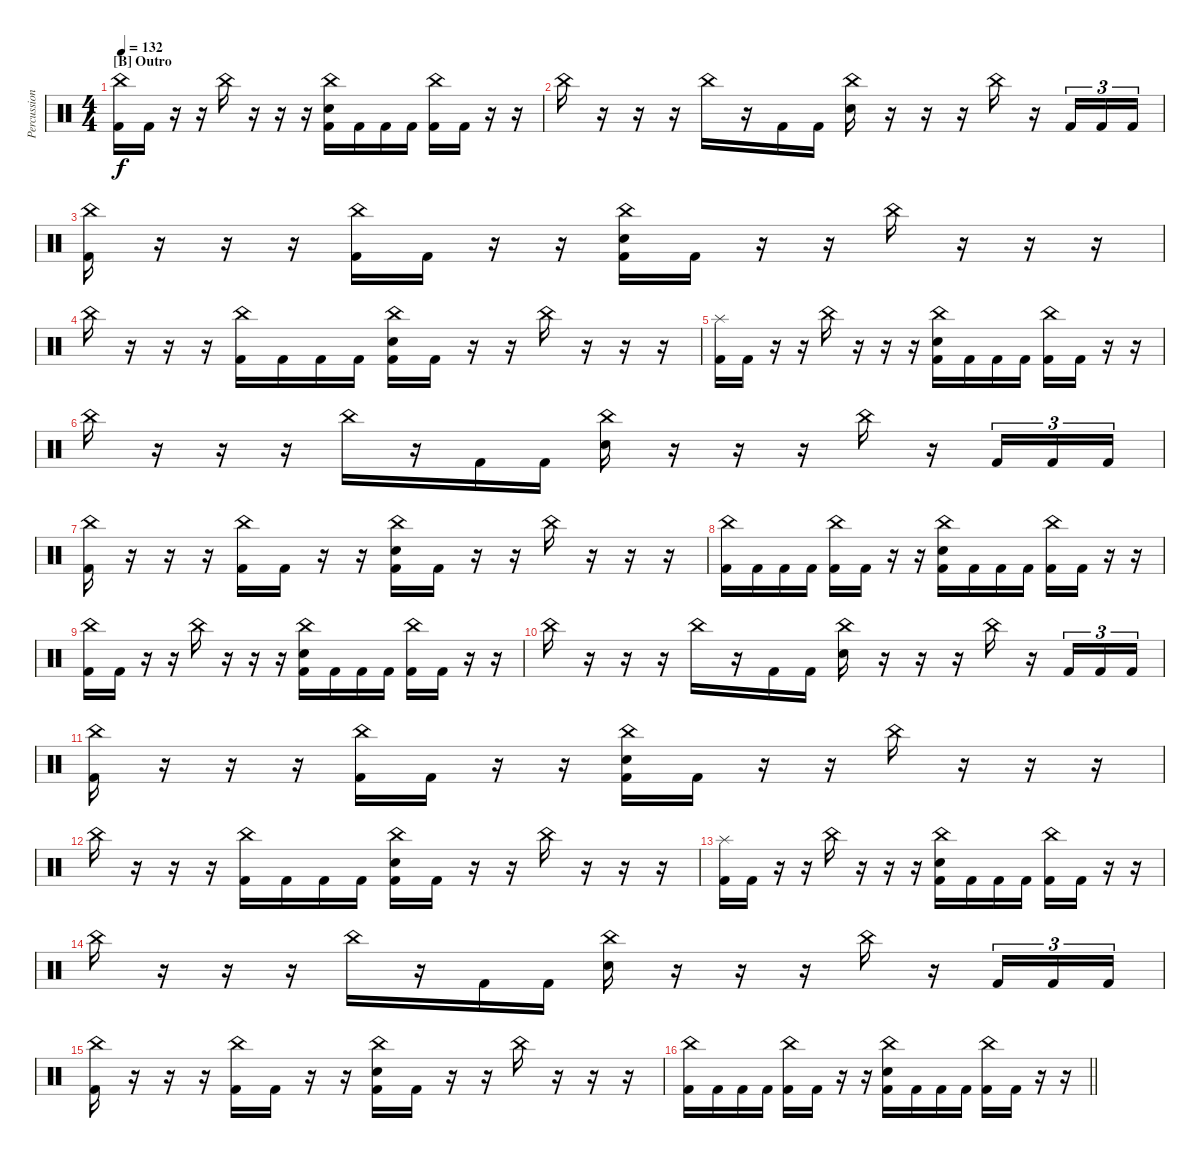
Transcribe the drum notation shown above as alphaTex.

\track ("Percussions" "Percussion") {instrument percussion}
\staff {score}
\articulation defaults
\ts (4 4)
\section ("" "[B] Outro")
\tempo 132
\clef neutral
\ks c
("China (hit)" "Kick (hit) 2").16{dy f} "Kick (hit) 2".16 r.16 r.16 "China (hit)".16 r.16 r.16 r.16 ("China (hit)" "Electric Snare (hit)" "Kick (hit) 2").16 "Kick (hit) 2".16 "Kick (hit) 2".16 "Kick (hit) 2".16 ("China (hit)" "Kick (hit) 2").16 "Kick (hit) 2".16 r.16 r.16 |
"China (hit)".16 r.16 r.16 r.16 "China (hit)".16 r.16 "Kick (hit) 2".16 "Kick (hit) 2".16 ("China (hit)" "Electric Snare (hit)").16 r.16 r.16 r.16 "China (hit)".16 r.16 "Kick (hit) 2".16{tu (3 2)} "Kick (hit) 2".16{tu (3 2)} "Kick (hit) 2".16{tu (3 2)} |
("China (hit)" "Kick (hit) 2").16 r.16 r.16 r.16 ("China (hit)" "Kick (hit) 2").16 "Kick (hit) 2".16 r.16 r.16 ("China (hit)" "Electric Snare (hit)" "Kick (hit) 2").16 "Kick (hit) 2".16 r.16 r.16 "China (hit)".16 r.16 r.16 r.16 |
"China (hit)".16 r.16 r.16 r.16 ("China (hit)" "Kick (hit) 2").16 "Kick (hit) 2".16 "Kick (hit) 2".16 "Kick (hit) 2".16 ("China (hit)" "Electric Snare (hit)" "Kick (hit) 2").16 "Kick (hit) 2".16 r.16 r.16 "China (hit)".16 r.16 r.16 r.16 |
("Splash (hit)" "Kick (hit) 2").16 "Kick (hit) 2".16 r.16 r.16 "China (hit)".16 r.16 r.16 r.16 ("China (hit)" "Electric Snare (hit)" "Kick (hit) 2").16 "Kick (hit) 2".16 "Kick (hit) 2".16 "Kick (hit) 2".16 ("China (hit)" "Kick (hit) 2").16 "Kick (hit) 2".16 r.16 r.16 |
"China (hit)".16 r.16 r.16 r.16 "China (hit)".16 r.16 "Kick (hit) 2".16 "Kick (hit) 2".16 ("China (hit)" "Electric Snare (hit)").16 r.16 r.16 r.16 "China (hit)".16 r.16 "Kick (hit) 2".16{tu (3 2)} "Kick (hit) 2".16{tu (3 2)} "Kick (hit) 2".16{tu (3 2)} |
("China (hit)" "Kick (hit) 2").16 r.16 r.16 r.16 ("China (hit)" "Kick (hit) 2").16 "Kick (hit) 2".16 r.16 r.16 ("China (hit)" "Electric Snare (hit)" "Kick (hit) 2").16 "Kick (hit) 2".16 r.16 r.16 "China (hit)".16 r.16 r.16 r.16 |
("China (hit)" "Kick (hit) 2").16 "Kick (hit) 2".16 "Kick (hit) 2".16 "Kick (hit) 2".16 ("China (hit)" "Kick (hit) 2").16 "Kick (hit) 2".16 r.16 r.16 ("China (hit)" "Electric Snare (hit)" "Kick (hit) 2").16 "Kick (hit) 2".16 "Kick (hit) 2".16 "Kick (hit) 2".16 ("China (hit)" "Kick (hit) 2").16 "Kick (hit) 2".16 r.16 r.16 |
("China (hit)" "Kick (hit) 2").16 "Kick (hit) 2".16 r.16 r.16 "China (hit)".16 r.16 r.16 r.16 ("China (hit)" "Electric Snare (hit)" "Kick (hit) 2").16 "Kick (hit) 2".16 "Kick (hit) 2".16 "Kick (hit) 2".16 ("China (hit)" "Kick (hit) 2").16 "Kick (hit) 2".16 r.16 r.16 |
"China (hit)".16 r.16 r.16 r.16 "China (hit)".16 r.16 "Kick (hit) 2".16 "Kick (hit) 2".16 ("China (hit)" "Electric Snare (hit)").16 r.16 r.16 r.16 "China (hit)".16 r.16 "Kick (hit) 2".16{tu (3 2)} "Kick (hit) 2".16{tu (3 2)} "Kick (hit) 2".16{tu (3 2)} |
("China (hit)" "Kick (hit) 2").16 r.16 r.16 r.16 ("China (hit)" "Kick (hit) 2").16 "Kick (hit) 2".16 r.16 r.16 ("China (hit)" "Electric Snare (hit)" "Kick (hit) 2").16 "Kick (hit) 2".16 r.16 r.16 "China (hit)".16 r.16 r.16 r.16 |
"China (hit)".16 r.16 r.16 r.16 ("China (hit)" "Kick (hit) 2").16 "Kick (hit) 2".16 "Kick (hit) 2".16 "Kick (hit) 2".16 ("China (hit)" "Electric Snare (hit)" "Kick (hit) 2").16 "Kick (hit) 2".16 r.16 r.16 "China (hit)".16 r.16 r.16 r.16 |
("Splash (hit)" "Kick (hit) 2").16 "Kick (hit) 2".16 r.16 r.16 "China (hit)".16 r.16 r.16 r.16 ("China (hit)" "Electric Snare (hit)" "Kick (hit) 2").16 "Kick (hit) 2".16 "Kick (hit) 2".16 "Kick (hit) 2".16 ("China (hit)" "Kick (hit) 2").16 "Kick (hit) 2".16 r.16 r.16 |
"China (hit)".16 r.16 r.16 r.16 "China (hit)".16 r.16 "Kick (hit) 2".16 "Kick (hit) 2".16 ("China (hit)" "Electric Snare (hit)").16 r.16 r.16 r.16 "China (hit)".16 r.16 "Kick (hit) 2".16{tu (3 2)} "Kick (hit) 2".16{tu (3 2)} "Kick (hit) 2".16{tu (3 2)} |
("China (hit)" "Kick (hit) 2").16 r.16 r.16 r.16 ("China (hit)" "Kick (hit) 2").16 "Kick (hit) 2".16 r.16 r.16 ("China (hit)" "Electric Snare (hit)" "Kick (hit) 2").16 "Kick (hit) 2".16 r.16 r.16 "China (hit)".16 r.16 r.16 r.16 |
\barLineRight lightlight
("China (hit)" "Kick (hit) 2").16 "Kick (hit) 2".16 "Kick (hit) 2".16 "Kick (hit) 2".16 ("China (hit)" "Kick (hit) 2").16 "Kick (hit) 2".16 r.16 r.16 ("China (hit)" "Electric Snare (hit)" "Kick (hit) 2").16 "Kick (hit) 2".16 "Kick (hit) 2".16 "Kick (hit) 2".16 ("China (hit)" "Kick (hit) 2").16 "Kick (hit) 2".16 r.16 r.16
